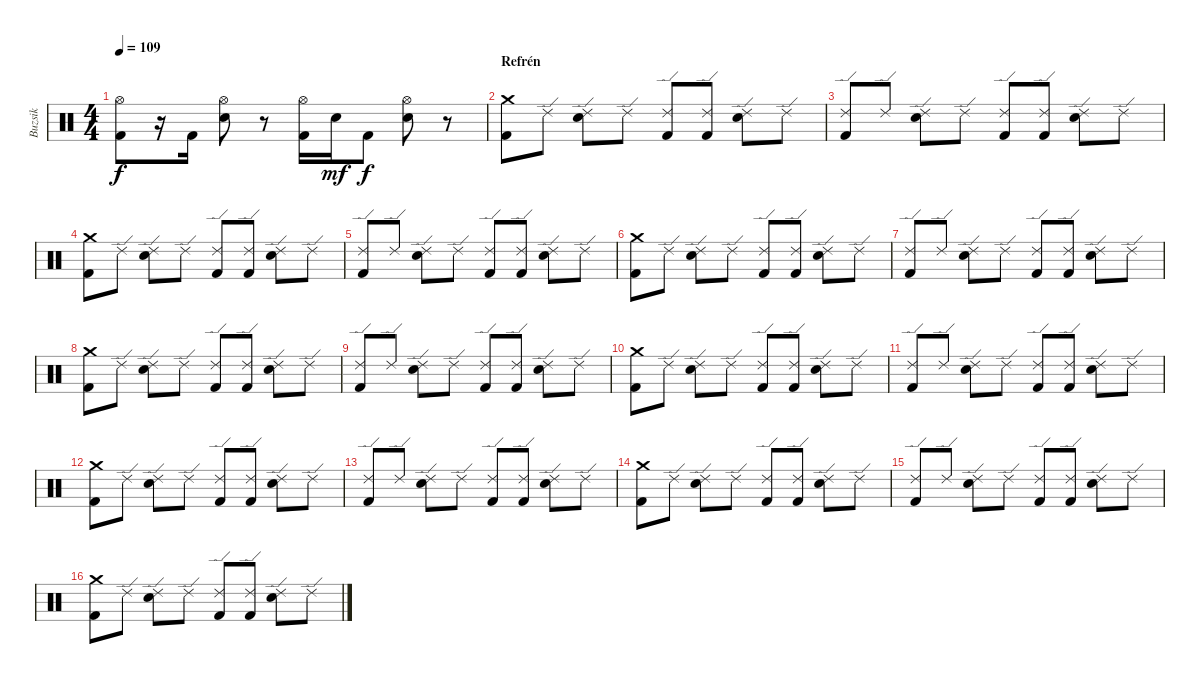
\track ("Buzsik" "Buzsik") {instrument percussion}
\staff {score}
\articulation defaults
\ts (4 4)
\tempo 109
\clef neutral
\ks c
("Hi-Hat (open)" "Kick (hit) 2").8{dy f} r.16 "Kick (hit) 2".16 ("Hi-Hat (open)" "Electric Snare (hit)").8 r.8 ("Hi-Hat (open)" "Kick (hit) 2").16 "Electric Snare (hit)".16{dy mf} "Kick (hit) 2".8{dy f} ("Hi-Hat (open)" "Electric Snare (hit)").8 r.8 |
\section ("" "Refrén")
("Crash medium (hit)" "Kick (hit) 2").8 "Ride (edge) 2".8 ("Ride (edge) 2" "Electric Snare (hit)").8 "Ride (edge) 2".8 ("Ride (edge) 2" "Kick (hit) 2").8 ("Ride (edge) 2" "Kick (hit) 2").8 ("Ride (edge) 2" "Electric Snare (hit)").8 "Ride (edge) 2".8 |
("Ride (edge) 2" "Kick (hit) 2").8 "Ride (edge) 2".8 ("Ride (edge) 2" "Electric Snare (hit)").8 "Ride (edge) 2".8 ("Ride (edge) 2" "Kick (hit) 2").8 ("Ride (edge) 2" "Kick (hit) 2").8 ("Ride (edge) 2" "Electric Snare (hit)").8 "Ride (edge) 2".8 |
("Crash medium (hit)" "Kick (hit) 2").8 "Ride (edge) 2".8 ("Ride (edge) 2" "Electric Snare (hit)").8 "Ride (edge) 2".8 ("Ride (edge) 2" "Kick (hit) 2").8 ("Ride (edge) 2" "Kick (hit) 2").8 ("Ride (edge) 2" "Electric Snare (hit)").8 "Ride (edge) 2".8 |
("Ride (edge) 2" "Kick (hit) 2").8 "Ride (edge) 2".8 ("Ride (edge) 2" "Electric Snare (hit)").8 "Ride (edge) 2".8 ("Ride (edge) 2" "Kick (hit) 2").8 ("Ride (edge) 2" "Kick (hit) 2").8 ("Ride (edge) 2" "Electric Snare (hit)").8 "Ride (edge) 2".8 |
("Crash medium (hit)" "Kick (hit) 2").8 "Ride (edge) 2".8 ("Ride (edge) 2" "Electric Snare (hit)").8 "Ride (edge) 2".8 ("Ride (edge) 2" "Kick (hit) 2").8 ("Ride (edge) 2" "Kick (hit) 2").8 ("Ride (edge) 2" "Electric Snare (hit)").8 "Ride (edge) 2".8 |
("Ride (edge) 2" "Kick (hit) 2").8 "Ride (edge) 2".8 ("Ride (edge) 2" "Electric Snare (hit)").8 "Ride (edge) 2".8 ("Ride (edge) 2" "Kick (hit) 2").8 ("Ride (edge) 2" "Kick (hit) 2").8 ("Ride (edge) 2" "Electric Snare (hit)").8 "Ride (edge) 2".8 |
("Crash medium (hit)" "Kick (hit) 2").8 "Ride (edge) 2".8 ("Ride (edge) 2" "Electric Snare (hit)").8 "Ride (edge) 2".8 ("Ride (edge) 2" "Kick (hit) 2").8 ("Ride (edge) 2" "Kick (hit) 2").8 ("Ride (edge) 2" "Electric Snare (hit)").8 "Ride (edge) 2".8 |
("Ride (edge) 2" "Kick (hit) 2").8 "Ride (edge) 2".8 ("Ride (edge) 2" "Electric Snare (hit)").8 "Ride (edge) 2".8 ("Ride (edge) 2" "Kick (hit) 2").8 ("Ride (edge) 2" "Kick (hit) 2").8 ("Ride (edge) 2" "Electric Snare (hit)").8 "Ride (edge) 2".8 |
("Crash medium (hit)" "Kick (hit) 2").8 "Ride (edge) 2".8 ("Ride (edge) 2" "Electric Snare (hit)").8 "Ride (edge) 2".8 ("Ride (edge) 2" "Kick (hit) 2").8 ("Ride (edge) 2" "Kick (hit) 2").8 ("Ride (edge) 2" "Electric Snare (hit)").8 "Ride (edge) 2".8 |
("Ride (edge) 2" "Kick (hit) 2").8 "Ride (edge) 2".8 ("Ride (edge) 2" "Electric Snare (hit)").8 "Ride (edge) 2".8 ("Ride (edge) 2" "Kick (hit) 2").8 ("Ride (edge) 2" "Kick (hit) 2").8 ("Ride (edge) 2" "Electric Snare (hit)").8 "Ride (edge) 2".8 |
("Crash medium (hit)" "Kick (hit) 2").8 "Ride (edge) 2".8 ("Ride (edge) 2" "Electric Snare (hit)").8 "Ride (edge) 2".8 ("Ride (edge) 2" "Kick (hit) 2").8 ("Ride (edge) 2" "Kick (hit) 2").8 ("Ride (edge) 2" "Electric Snare (hit)").8 "Ride (edge) 2".8 |
("Ride (edge) 2" "Kick (hit) 2").8 "Ride (edge) 2".8 ("Ride (edge) 2" "Electric Snare (hit)").8 "Ride (edge) 2".8 ("Ride (edge) 2" "Kick (hit) 2").8 ("Ride (edge) 2" "Kick (hit) 2").8 ("Ride (edge) 2" "Electric Snare (hit)").8 "Ride (edge) 2".8 |
("Crash medium (hit)" "Kick (hit) 2").8 "Ride (edge) 2".8 ("Ride (edge) 2" "Electric Snare (hit)").8 "Ride (edge) 2".8 ("Ride (edge) 2" "Kick (hit) 2").8 ("Ride (edge) 2" "Kick (hit) 2").8 ("Ride (edge) 2" "Electric Snare (hit)").8 "Ride (edge) 2".8 |
("Ride (edge) 2" "Kick (hit) 2").8 "Ride (edge) 2".8 ("Ride (edge) 2" "Electric Snare (hit)").8 "Ride (edge) 2".8 ("Ride (edge) 2" "Kick (hit) 2").8 ("Ride (edge) 2" "Kick (hit) 2").8 ("Ride (edge) 2" "Electric Snare (hit)").8 "Ride (edge) 2".8 |
("Crash medium (hit)" "Kick (hit) 2").8 "Ride (edge) 2".8 ("Ride (edge) 2" "Electric Snare (hit)").8 "Ride (edge) 2".8 ("Ride (edge) 2" "Kick (hit) 2").8 ("Ride (edge) 2" "Kick (hit) 2").8 ("Ride (edge) 2" "Electric Snare (hit)").8 "Ride (edge) 2".8
